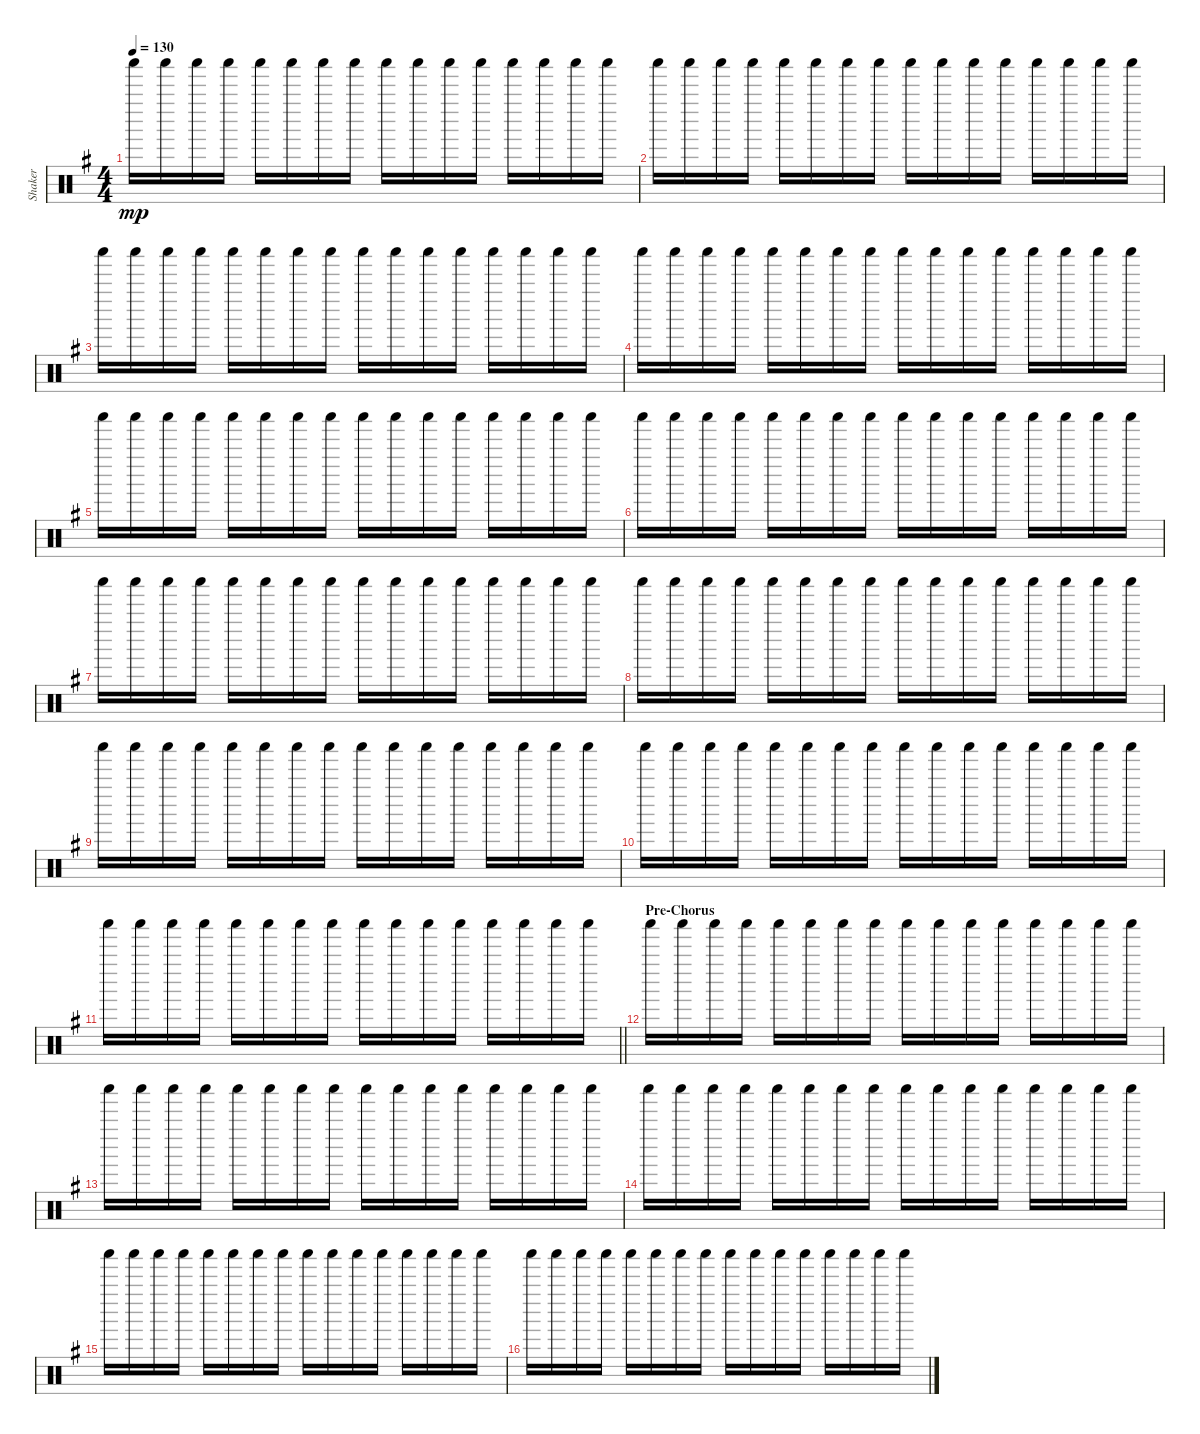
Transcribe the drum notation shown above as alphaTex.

\track ("Shaker" "Shaker") {instrument percussion}
\staff {score}
\articulation defaults
\ts (4 4)
\tempo 130
\clef neutral
\ks g "Shaker (hit)".16{dy mp} "Shaker (hit)".16 "Shaker (hit)".16 "Shaker (hit)".16 "Shaker (hit)".16 "Shaker (hit)".16 "Shaker (hit)".16 "Shaker (hit)".16 "Shaker (hit)".16 "Shaker (hit)".16 "Shaker (hit)".16 "Shaker (hit)".16 "Shaker (hit)".16 "Shaker (hit)".16 "Shaker (hit)".16 "Shaker (hit)".16
|
"Shaker (hit)".16 "Shaker (hit)".16 "Shaker (hit)".16 "Shaker (hit)".16 "Shaker (hit)".16 "Shaker (hit)".16 "Shaker (hit)".16 "Shaker (hit)".16 "Shaker (hit)".16 "Shaker (hit)".16 "Shaker (hit)".16 "Shaker (hit)".16 "Shaker (hit)".16 "Shaker (hit)".16 "Shaker (hit)".16 "Shaker (hit)".16 |
"Shaker (hit)".16 "Shaker (hit)".16 "Shaker (hit)".16 "Shaker (hit)".16 "Shaker (hit)".16 "Shaker (hit)".16 "Shaker (hit)".16 "Shaker (hit)".16 "Shaker (hit)".16 "Shaker (hit)".16 "Shaker (hit)".16 "Shaker (hit)".16 "Shaker (hit)".16 "Shaker (hit)".16 "Shaker (hit)".16 "Shaker (hit)".16 |
"Shaker (hit)".16 "Shaker (hit)".16 "Shaker (hit)".16 "Shaker (hit)".16 "Shaker (hit)".16 "Shaker (hit)".16 "Shaker (hit)".16 "Shaker (hit)".16 "Shaker (hit)".16 "Shaker (hit)".16 "Shaker (hit)".16 "Shaker (hit)".16 "Shaker (hit)".16 "Shaker (hit)".16 "Shaker (hit)".16 "Shaker (hit)".16 |
"Shaker (hit)".16 "Shaker (hit)".16 "Shaker (hit)".16 "Shaker (hit)".16 "Shaker (hit)".16 "Shaker (hit)".16 "Shaker (hit)".16 "Shaker (hit)".16 "Shaker (hit)".16 "Shaker (hit)".16 "Shaker (hit)".16 "Shaker (hit)".16 "Shaker (hit)".16 "Shaker (hit)".16 "Shaker (hit)".16 "Shaker (hit)".16 |
"Shaker (hit)".16 "Shaker (hit)".16 "Shaker (hit)".16 "Shaker (hit)".16 "Shaker (hit)".16 "Shaker (hit)".16 "Shaker (hit)".16 "Shaker (hit)".16 "Shaker (hit)".16 "Shaker (hit)".16 "Shaker (hit)".16 "Shaker (hit)".16 "Shaker (hit)".16 "Shaker (hit)".16 "Shaker (hit)".16 "Shaker (hit)".16 |
"Shaker (hit)".16 "Shaker (hit)".16 "Shaker (hit)".16 "Shaker (hit)".16 "Shaker (hit)".16 "Shaker (hit)".16 "Shaker (hit)".16 "Shaker (hit)".16 "Shaker (hit)".16 "Shaker (hit)".16 "Shaker (hit)".16 "Shaker (hit)".16 "Shaker (hit)".16 "Shaker (hit)".16 "Shaker (hit)".16 "Shaker (hit)".16 |
"Shaker (hit)".16 "Shaker (hit)".16 "Shaker (hit)".16 "Shaker (hit)".16 "Shaker (hit)".16 "Shaker (hit)".16 "Shaker (hit)".16 "Shaker (hit)".16 "Shaker (hit)".16 "Shaker (hit)".16 "Shaker (hit)".16 "Shaker (hit)".16 "Shaker (hit)".16 "Shaker (hit)".16 "Shaker (hit)".16 "Shaker (hit)".16 |
"Shaker (hit)".16 "Shaker (hit)".16 "Shaker (hit)".16 "Shaker (hit)".16 "Shaker (hit)".16 "Shaker (hit)".16 "Shaker (hit)".16 "Shaker (hit)".16 "Shaker (hit)".16 "Shaker (hit)".16 "Shaker (hit)".16 "Shaker (hit)".16 "Shaker (hit)".16 "Shaker (hit)".16 "Shaker (hit)".16 "Shaker (hit)".16 |
"Shaker (hit)".16 "Shaker (hit)".16 "Shaker (hit)".16 "Shaker (hit)".16 "Shaker (hit)".16 "Shaker (hit)".16 "Shaker (hit)".16 "Shaker (hit)".16 "Shaker (hit)".16 "Shaker (hit)".16 "Shaker (hit)".16 "Shaker (hit)".16 "Shaker (hit)".16 "Shaker (hit)".16 "Shaker (hit)".16 "Shaker (hit)".16 |
\barLineRight lightlight "Shaker (hit)".16 "Shaker (hit)".16 "Shaker (hit)".16 "Shaker (hit)".16 "Shaker (hit)".16 "Shaker (hit)".16 "Shaker (hit)".16 "Shaker (hit)".16 "Shaker (hit)".16 "Shaker (hit)".16 "Shaker (hit)".16 "Shaker (hit)".16 "Shaker (hit)".16 "Shaker (hit)".16 "Shaker (hit)".16 "Shaker (hit)".16
|
\section ("" "Pre-Chorus")
"Shaker (hit)".16 "Shaker (hit)".16 "Shaker (hit)".16 "Shaker (hit)".16 "Shaker (hit)".16 "Shaker (hit)".16 "Shaker (hit)".16 "Shaker (hit)".16 "Shaker (hit)".16 "Shaker (hit)".16 "Shaker (hit)".16 "Shaker (hit)".16 "Shaker (hit)".16 "Shaker (hit)".16 "Shaker (hit)".16 "Shaker (hit)".16 |
"Shaker (hit)".16 "Shaker (hit)".16 "Shaker (hit)".16 "Shaker (hit)".16 "Shaker (hit)".16 "Shaker (hit)".16 "Shaker (hit)".16 "Shaker (hit)".16 "Shaker (hit)".16 "Shaker (hit)".16 "Shaker (hit)".16 "Shaker (hit)".16 "Shaker (hit)".16 "Shaker (hit)".16 "Shaker (hit)".16 "Shaker (hit)".16 |
"Shaker (hit)".16 "Shaker (hit)".16 "Shaker (hit)".16 "Shaker (hit)".16 "Shaker (hit)".16 "Shaker (hit)".16 "Shaker (hit)".16 "Shaker (hit)".16 "Shaker (hit)".16 "Shaker (hit)".16 "Shaker (hit)".16 "Shaker (hit)".16 "Shaker (hit)".16 "Shaker (hit)".16 "Shaker (hit)".16 "Shaker (hit)".16 |
"Shaker (hit)".16 "Shaker (hit)".16 "Shaker (hit)".16 "Shaker (hit)".16 "Shaker (hit)".16 "Shaker (hit)".16 "Shaker (hit)".16 "Shaker (hit)".16 "Shaker (hit)".16 "Shaker (hit)".16 "Shaker (hit)".16 "Shaker (hit)".16 "Shaker (hit)".16 "Shaker (hit)".16 "Shaker (hit)".16 "Shaker (hit)".16 |
"Shaker (hit)".16 "Shaker (hit)".16 "Shaker (hit)".16 "Shaker (hit)".16 "Shaker (hit)".16 "Shaker (hit)".16 "Shaker (hit)".16 "Shaker (hit)".16 "Shaker (hit)".16 "Shaker (hit)".16 "Shaker (hit)".16 "Shaker (hit)".16 "Shaker (hit)".16 "Shaker (hit)".16 "Shaker (hit)".16 "Shaker (hit)".16
